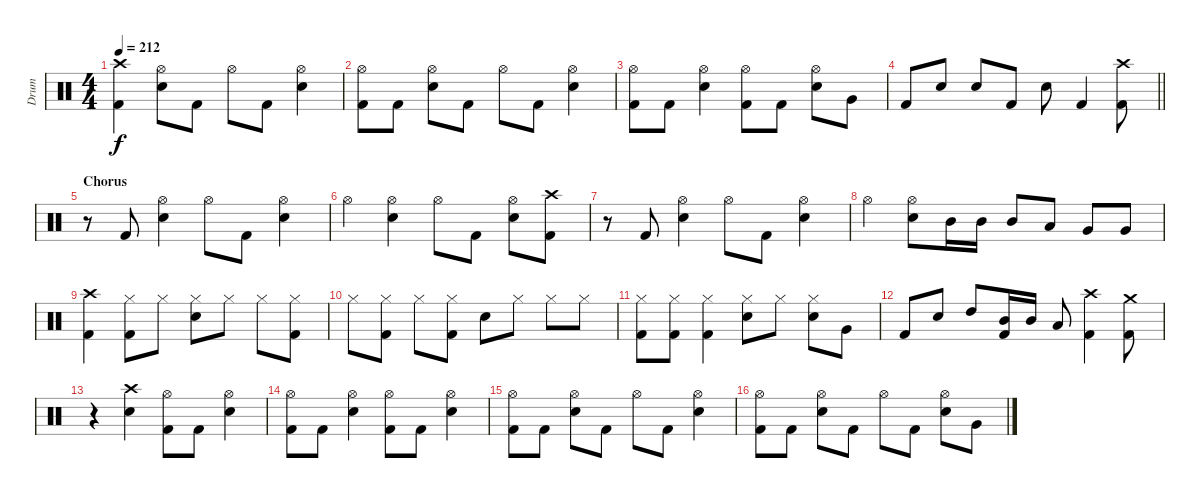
\track ("Drum" "Drum") {instrument percussion}
\staff {score}
\articulation defaults
\ts (4 4)
\tempo 212
\clef neutral
\ks c
("Crash high (hit)" "Kick (hit) 2").4{dy f} ("Hi-Hat (open)" "Electric Snare (hit)").8 "Kick (hit) 2".8 "Hi-Hat (open)".8 "Kick (hit) 2".8 ("Hi-Hat (open)" "Electric Snare (hit)").4 |
("Hi-Hat (open)" "Kick (hit) 2").8 "Kick (hit) 2".8 ("Hi-Hat (open)" "Electric Snare (hit)").8 "Kick (hit) 2".8 "Hi-Hat (open)".8 "Kick (hit) 2".8 ("Hi-Hat (open)" "Electric Snare (hit)").4 |
("Hi-Hat (open)" "Kick (hit) 2").8 "Kick (hit) 2".8 ("Hi-Hat (open)" "Electric Snare (hit)").4 ("Hi-Hat (open)" "Kick (hit) 2").8 "Kick (hit) 2".8 ("Hi-Hat (open)" "Electric Snare (hit)").8 "Very Low Tom (hit)".8 |
\barLineRight lightlight "Kick (hit) 2".8 "Electric Snare (hit)".8 "Electric Snare (hit)".8 "Kick (hit) 2".8 "Electric Snare (hit)".8 "Kick (hit) 2".4
("Crash high (hit)" "Kick (hit) 2").8 |
\section ("" "Chorus")
r.8 "Kick (hit) 2".8 ("Hi-Hat (open)" "Electric Snare (hit)").4 "Hi-Hat (open)".8 "Kick (hit) 2".8 ("Hi-Hat (open)" "Electric Snare (hit)").4 |
"Hi-Hat (open)".4 ("Hi-Hat (open)" "Electric Snare (hit)").4 "Hi-Hat (open)".8 "Kick (hit) 2".8 ("Hi-Hat (open)" "Electric Snare (hit)").8 ("Crash high (hit)" "Kick (hit) 2").8 |
r.8 "Kick (hit) 2".8 ("Hi-Hat (open)" "Electric Snare (hit)").4 "Hi-Hat (open)".8 "Kick (hit) 2".8 ("Hi-Hat (open)" "Electric Snare (hit)").4 |
"Hi-Hat (open)".4 ("Hi-Hat (open)" "Electric Snare (hit)").8 "Mid Tom (hit)".16 "Mid Tom (hit)".16 "Mid Tom (hit)".8 "Low Tom (hit)".8 "Very Low Tom (hit)".8 "Very Low Tom (hit)".8 |
("Crash high (hit)" "Kick (hit) 2").4 ("Hi-Hat (closed)" "Kick (hit) 2").8 "Hi-Hat (closed)".8 ("Hi-Hat (closed)" "Electric Snare (hit)").8 "Hi-Hat (closed)".8 "Hi-Hat (closed)".8 ("Hi-Hat (closed)" "Kick (hit) 2").8 |
"Hi-Hat (closed)".8 ("Hi-Hat (closed)" "Kick (hit) 2").8 "Hi-Hat (closed)".8 ("Hi-Hat (closed)" "Kick (hit) 2").8 "Electric Snare (hit)".8 "Hi-Hat (closed)".8 "Hi-Hat (closed)".8 "Hi-Hat (closed)".8 |
("Hi-Hat (closed)" "Kick (hit) 2").8 ("Hi-Hat (closed)" "Kick (hit) 2").8 ("Hi-Hat (closed)" "Kick (hit) 2").4 ("Hi-Hat (closed)" "Electric Snare (hit)").8 "Hi-Hat (closed)".8 ("Hi-Hat (closed)" "Electric Snare (hit)").8 "Very Low Tom (hit)".8 |
"Kick (hit) 2".8 "Electric Snare (hit)".8 "High Tom (hit)".8 ("Mid Tom (hit)" "Kick (hit) 2").16 "Mid Tom (hit)".16 "Low Tom (hit)".8 ("Crash high (hit)" "Kick (hit) 2").4 ("Crash medium (hit)" "Kick (hit) 2").8 |
r.4 ("Crash high (hit)" "Electric Snare (hit)").4 ("Hi-Hat (open)" "Kick (hit) 2").8 "Kick (hit) 2".8 ("Hi-Hat (open)" "Electric Snare (hit)").4 |
("Hi-Hat (open)" "Kick (hit) 2").8 "Kick (hit) 2".8 ("Hi-Hat (open)" "Electric Snare (hit)").4 ("Hi-Hat (open)" "Kick (hit) 2").8 "Kick (hit) 2".8 ("Hi-Hat (open)" "Electric Snare (hit)").4 |
("Hi-Hat (open)" "Kick (hit) 2").8 "Kick (hit) 2".8 ("Hi-Hat (open)" "Electric Snare (hit)").8 "Kick (hit) 2".8 "Hi-Hat (open)".8 "Kick (hit) 2".8 ("Hi-Hat (open)" "Electric Snare (hit)").4 |
("Hi-Hat (open)" "Kick (hit) 2").8 "Kick (hit) 2".8 ("Hi-Hat (open)" "Electric Snare (hit)").8 "Kick (hit) 2".8 "Hi-Hat (open)".8 "Kick (hit) 2".8 ("Hi-Hat (open)" "Electric Snare (hit)").8 "Very Low Tom (hit)".8
